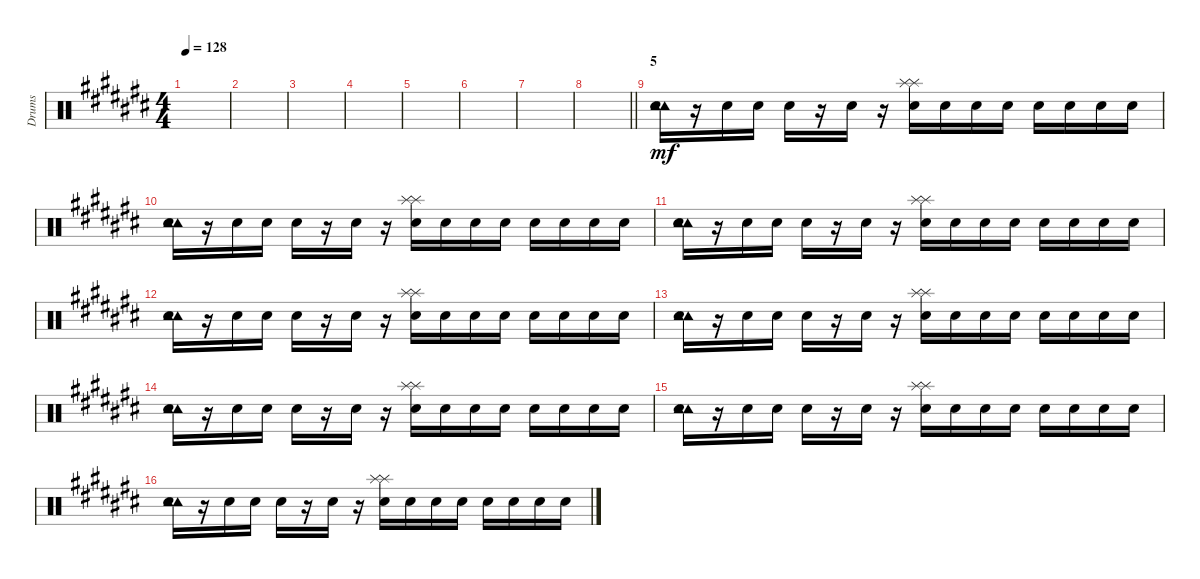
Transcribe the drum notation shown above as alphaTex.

\track ("Drums" "Drums") {instrument percussion}
\staff {score}
\articulation defaults
\ts (4 4)
\tempo 128
\clef neutral
\ks c#
|
|
|
|
|
|
|
\barLineRight lightlight
|
\section ("" "5")
("Tambourine (hit)" "Tambourine (hit)" "Electric Snare (hit)").16{dy mf} r.16 "Electric Snare (hit)".16 "Electric Snare (hit)".16 "Electric Snare (hit)".16 r.16 "Electric Snare (hit)".16 r.16 ("Splash (hit)" "Splash (hit)" "Electric Snare (hit)").16 "Electric Snare (hit)".16 "Electric Snare (hit)".16 "Electric Snare (hit)".16 "Electric Snare (hit)".16 "Electric Snare (hit)".16 "Electric Snare (hit)".16 "Electric Snare (hit)".16 |
("Tambourine (hit)" "Tambourine (hit)" "Electric Snare (hit)").16 r.16 "Electric Snare (hit)".16 "Electric Snare (hit)".16 "Electric Snare (hit)".16 r.16 "Electric Snare (hit)".16 r.16 ("Splash (hit)" "Splash (hit)" "Electric Snare (hit)").16 "Electric Snare (hit)".16 "Electric Snare (hit)".16 "Electric Snare (hit)".16 "Electric Snare (hit)".16 "Electric Snare (hit)".16 "Electric Snare (hit)".16 "Electric Snare (hit)".16 |
("Tambourine (hit)" "Tambourine (hit)" "Electric Snare (hit)").16 r.16 "Electric Snare (hit)".16 "Electric Snare (hit)".16 "Electric Snare (hit)".16 r.16 "Electric Snare (hit)".16 r.16 ("Splash (hit)" "Splash (hit)" "Electric Snare (hit)").16 "Electric Snare (hit)".16 "Electric Snare (hit)".16 "Electric Snare (hit)".16 "Electric Snare (hit)".16 "Electric Snare (hit)".16 "Electric Snare (hit)".16 "Electric Snare (hit)".16 |
("Tambourine (hit)" "Tambourine (hit)" "Electric Snare (hit)").16 r.16 "Electric Snare (hit)".16 "Electric Snare (hit)".16 "Electric Snare (hit)".16 r.16 "Electric Snare (hit)".16 r.16 ("Splash (hit)" "Splash (hit)" "Electric Snare (hit)").16 "Electric Snare (hit)".16 "Electric Snare (hit)".16 "Electric Snare (hit)".16 "Electric Snare (hit)".16 "Electric Snare (hit)".16 "Electric Snare (hit)".16 "Electric Snare (hit)".16 |
("Tambourine (hit)" "Tambourine (hit)" "Electric Snare (hit)").16 r.16 "Electric Snare (hit)".16 "Electric Snare (hit)".16 "Electric Snare (hit)".16 r.16 "Electric Snare (hit)".16 r.16 ("Splash (hit)" "Splash (hit)" "Electric Snare (hit)").16 "Electric Snare (hit)".16 "Electric Snare (hit)".16 "Electric Snare (hit)".16 "Electric Snare (hit)".16 "Electric Snare (hit)".16 "Electric Snare (hit)".16 "Electric Snare (hit)".16 |
("Tambourine (hit)" "Tambourine (hit)" "Electric Snare (hit)").16 r.16 "Electric Snare (hit)".16 "Electric Snare (hit)".16 "Electric Snare (hit)".16 r.16 "Electric Snare (hit)".16 r.16 ("Splash (hit)" "Splash (hit)" "Electric Snare (hit)").16 "Electric Snare (hit)".16 "Electric Snare (hit)".16 "Electric Snare (hit)".16 "Electric Snare (hit)".16 "Electric Snare (hit)".16 "Electric Snare (hit)".16 "Electric Snare (hit)".16 |
("Tambourine (hit)" "Tambourine (hit)" "Electric Snare (hit)").16 r.16 "Electric Snare (hit)".16 "Electric Snare (hit)".16 "Electric Snare (hit)".16 r.16 "Electric Snare (hit)".16 r.16 ("Splash (hit)" "Splash (hit)" "Electric Snare (hit)").16 "Electric Snare (hit)".16 "Electric Snare (hit)".16 "Electric Snare (hit)".16 "Electric Snare (hit)".16 "Electric Snare (hit)".16 "Electric Snare (hit)".16 "Electric Snare (hit)".16 |
("Tambourine (hit)" "Tambourine (hit)" "Electric Snare (hit)").16 r.16 "Electric Snare (hit)".16 "Electric Snare (hit)".16 "Electric Snare (hit)".16 r.16 "Electric Snare (hit)".16 r.16 ("Splash (hit)" "Splash (hit)" "Electric Snare (hit)").16 "Electric Snare (hit)".16 "Electric Snare (hit)".16 "Electric Snare (hit)".16 "Electric Snare (hit)".16 "Electric Snare (hit)".16 "Electric Snare (hit)".16 "Electric Snare (hit)".16
